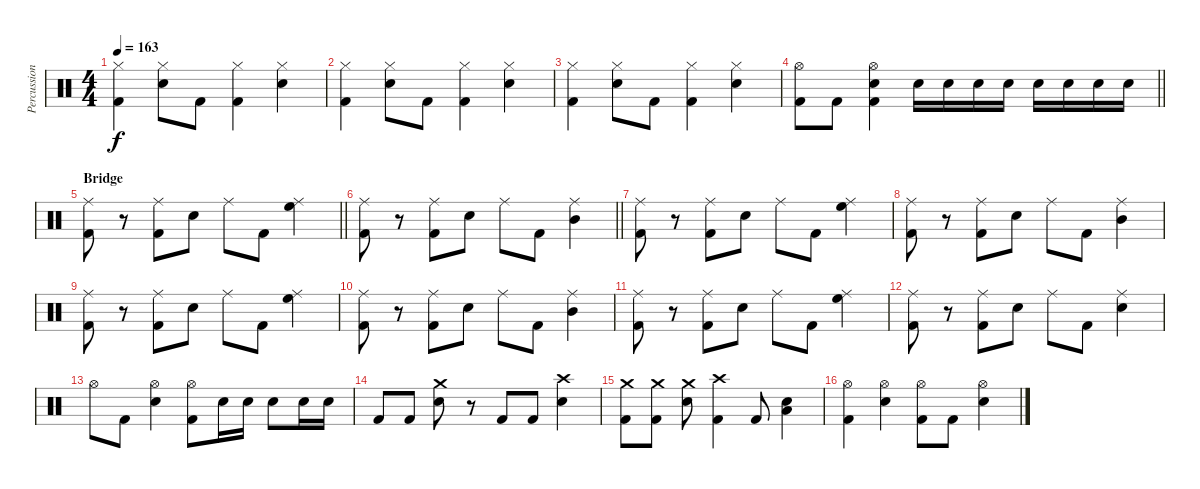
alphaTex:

\track ("Percussion" "Percussion") {instrument percussion}
\staff {score}
\articulation defaults
\ts (4 4)
\tempo 163
\clef neutral
\ks c
("Hi-Hat (closed)" "Kick (hit) 2").4{dy f} ("Hi-Hat (closed)" "Electric Snare (hit)").8 "Kick (hit) 2".8 ("Hi-Hat (closed)" "Kick (hit) 2").4 ("Hi-Hat (closed)" "Electric Snare (hit)").4 |
("Hi-Hat (closed)" "Kick (hit) 2").4 ("Hi-Hat (closed)" "Electric Snare (hit)").8 "Kick (hit) 2".8 ("Hi-Hat (closed)" "Kick (hit) 2").4 ("Hi-Hat (closed)" "Electric Snare (hit)").4 |
("Hi-Hat (closed)" "Kick (hit) 2").4 ("Hi-Hat (closed)" "Electric Snare (hit)").8 "Kick (hit) 2".8 ("Hi-Hat (closed)" "Kick (hit) 2").4 ("Hi-Hat (closed)" "Electric Snare (hit)").4 |
\barLineRight lightlight
("Hi-Hat (open)" "Kick (hit) 2").8 "Kick (hit) 2".8 ("Hi-Hat (open)" "Electric Snare (hit)" "Kick (hit) 2").4 "Electric Snare (hit)".16 "Electric Snare (hit)".16 "Electric Snare (hit)".16 "Electric Snare (hit)".16 "Electric Snare (hit)".16 "Electric Snare (hit)".16 "Electric Snare (hit)".16 "Electric Snare (hit)".16 |
\section ("" "Bridge")
\barLineRight lightlight
("Ride (middle)" "Kick (hit) 2").8 r.8 ("Ride (middle)" "Kick (hit) 2").8 "Electric Snare (hit)".8 "Ride (middle)".8 "Kick (hit) 2".8 ("Ride (middle)" "High Floor Tom (hit)").4 |
\section ("" "")
\barLineRight lightlight
("Ride (middle)" "Kick (hit) 2").8 r.8 ("Ride (middle)" "Kick (hit) 2").8 "Electric Snare (hit)".8 "Ride (middle)".8 "Kick (hit) 2".8 ("Ride (middle)" "Mid Tom (hit)").4 |
("Ride (middle)" "Kick (hit) 2").8 r.8 ("Ride (middle)" "Kick (hit) 2").8 "Electric Snare (hit)".8 "Ride (middle)".8 "Kick (hit) 2".8 ("Ride (middle)" "High Floor Tom (hit)").4 |
("Ride (middle)" "Kick (hit) 2").8 r.8 ("Ride (middle)" "Kick (hit) 2").8 "Electric Snare (hit)".8 "Ride (middle)".8 "Kick (hit) 2".8 ("Ride (middle)" "Mid Tom (hit)").4 |
("Ride (middle)" "Kick (hit) 2").8 r.8 ("Ride (middle)" "Kick (hit) 2").8 "Electric Snare (hit)".8 "Ride (middle)".8 "Kick (hit) 2".8 ("Ride (middle)" "High Floor Tom (hit)").4 |
("Ride (middle)" "Kick (hit) 2").8 r.8 ("Ride (middle)" "Kick (hit) 2").8 "Electric Snare (hit)".8 "Ride (middle)".8 "Kick (hit) 2".8 ("Ride (middle)" "Mid Tom (hit)").4 |
("Ride (middle)" "Kick (hit) 2").8 r.8 ("Ride (middle)" "Kick (hit) 2").8 "Electric Snare (hit)".8 "Ride (middle)".8 "Kick (hit) 2".8 ("Ride (middle)" "High Floor Tom (hit)").4 |
("Ride (middle)" "Kick (hit) 2").8 r.8 ("Ride (middle)" "Kick (hit) 2").8 "Electric Snare (hit)".8 "Ride (middle)".8 "Kick (hit) 2".8 ("Ride (middle)" "Electric Snare (hit)").4 |
"Hi-Hat (open)".8 "Kick (hit) 2".8 ("Hi-Hat (open)" "Electric Snare (hit)").4 ("Hi-Hat (open)" "Kick (hit) 2").8 "Electric Snare (hit)".16 "Electric Snare (hit)".16 "Electric Snare (hit)".8 "Electric Snare (hit)".16 "Electric Snare (hit)".16 |
"Kick (hit) 2".8 "Kick (hit) 2".8 ("Crash medium (hit)" "Electric Snare (hit)").8 r.8 "Kick (hit) 2".8 "Kick (hit) 2".8 ("Crash high (hit)" "Electric Snare (hit)").4 |
("Crash medium (hit)" "Kick (hit) 2").8 ("Crash medium (hit)" "Kick (hit) 2").8 ("Crash medium (hit)" "Electric Snare (hit)").8 ("Crash high (hit)" "Kick (hit) 2").4 "Kick (hit) 2".8 ("Low Floor Tom (hit)" "Electric Snare (hit)").4 |
("Hi-Hat (open)" "Kick (hit) 2").4 ("Hi-Hat (open)" "Electric Snare (hit)").4 ("Hi-Hat (open)" "Kick (hit) 2").8 "Kick (hit) 2".8 ("Hi-Hat (open)" "Electric Snare (hit)").4
